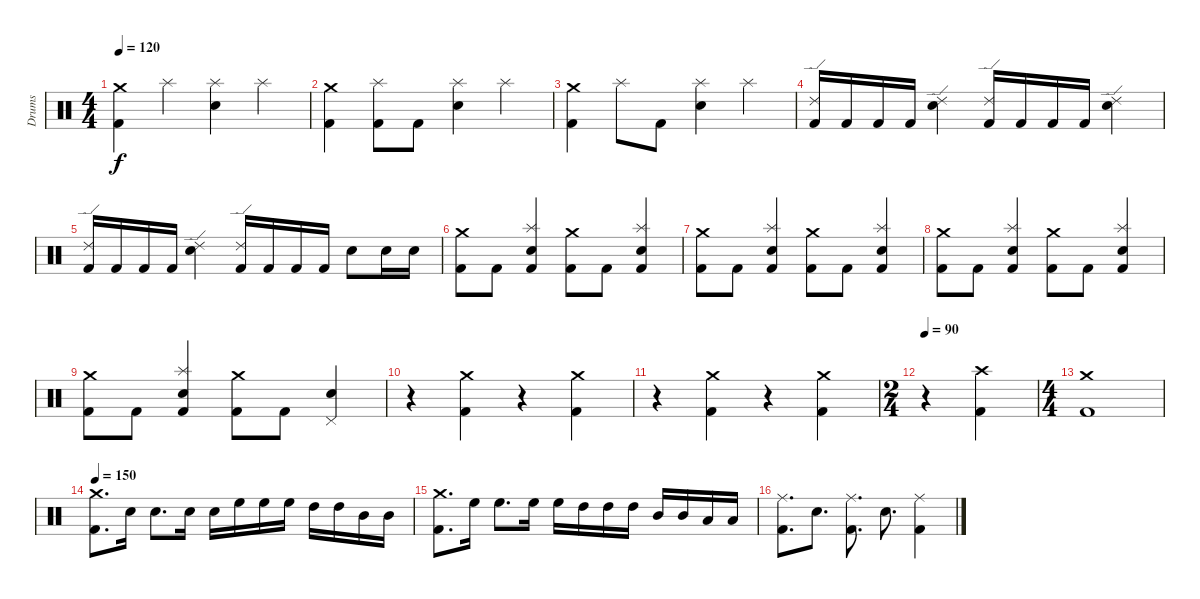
\track ("Drums" "Drums") {instrument percussion}
\staff {score}
\articulation defaults
\ts (4 4)
\tempo 120
\clef neutral
\ks c
("Crash medium (hit)" "Kick (hit) 2").4{dy f} "Splash (hit)".4 ("Splash (hit)" "Snare (hit) 2").4 "Splash (hit)".4 |
("Crash medium (hit)" "Kick (hit) 2").4 ("Splash (hit)" "Kick (hit) 2").8 "Kick (hit) 2".8 ("Splash (hit)" "Snare (hit) 2").4 "Splash (hit)".4 |
("Crash medium (hit)" "Kick (hit) 2").4 "Splash (hit)".8 "Kick (hit) 2".8 ("Splash (hit)" "Snare (hit) 2").4 "Splash (hit)".4 |
("Ride (edge) 2" "Kick (hit) 2").16 "Kick (hit) 2".16 "Kick (hit) 2".16 "Kick (hit) 2".16 ("Ride (edge) 2" "Snare (hit) 2").4 ("Ride (edge) 2" "Kick (hit) 2").16 "Kick (hit) 2".16 "Kick (hit) 2".16 "Kick (hit) 2".16 ("Ride (edge) 2" "Snare (hit) 2").4 |
("Ride (edge) 2" "Kick (hit) 2").16 "Kick (hit) 2".16 "Kick (hit) 2".16 "Kick (hit) 2".16 ("Ride (edge) 2" "Snare (hit) 2").4 ("Ride (edge) 2" "Kick (hit) 2").16 "Kick (hit) 2".16 "Kick (hit) 2".16 "Kick (hit) 2".16 "Snare (hit) 2".8 "Snare (hit) 2".16 "Snare (hit) 2".16 |
("Crash medium (hit)" "Kick (hit) 2").8 "Kick (hit) 2".8 ("Splash (hit)" "Snare (hit) 2" "Kick (hit) 2").4 ("Crash medium (hit)" "Kick (hit) 2").8 "Kick (hit) 2".8 ("Splash (hit)" "Snare (hit) 2" "Kick (hit) 2").4 |
("Crash medium (hit)" "Kick (hit) 2").8 "Kick (hit) 2".8 ("Splash (hit)" "Snare (hit) 2" "Kick (hit) 2").4 ("Crash medium (hit)" "Kick (hit) 2").8 "Kick (hit) 2".8 ("Splash (hit)" "Snare (hit) 2" "Kick (hit) 2").4 |
("Crash medium (hit)" "Kick (hit) 2").8 "Kick (hit) 2".8 ("Splash (hit)" "Snare (hit) 2" "Kick (hit) 2").4 ("Crash medium (hit)" "Kick (hit) 2").8 "Kick (hit) 2".8 ("Splash (hit)" "Snare (hit) 2" "Kick (hit) 2").4 |
("Crash medium (hit)" "Kick (hit) 2").8 "Kick (hit) 2".8 ("Splash (hit)" "Snare (hit) 2" "Kick (hit) 2").4 ("Crash medium (hit)" "Kick (hit) 2").8 "Kick (hit) 2".8 ("Pedal Hi-Hat (hit)" "Snare (hit) 2").4 |
r.4 ("Crash medium (hit)" "Kick (hit) 2").4 r.4 ("Crash medium (hit)" "Kick (hit) 2").4 |
r.4 ("Crash medium (hit)" "Kick (hit) 2").4 r.4 ("Crash medium (hit)" "Kick (hit) 2").4 |
\ts (2 4)
\tempo 90
r.4 ("Crash high (hit)" "Kick (hit) 2").4 |
\ts (4 4)
("Crash medium (hit)" "Kick (hit) 2").1 |
\tempo 150
("Crash medium (hit)" "Kick (hit) 2").8{d} "Snare (hit) 2".16 "Snare (hit) 2".8{d} "Snare (hit) 2".16 "Snare (hit) 2".16 "High Floor Tom (hit)".16 "High Floor Tom (hit)".16 "High Floor Tom (hit)".16 "High Tom (hit)".16 "High Tom (hit)".16 "Mid Tom (hit)".16 "Mid Tom (hit)".16 |
("Crash medium (hit)" "Kick (hit) 2").8{d} "High Floor Tom (hit)".16 "High Floor Tom (hit)".8{d} "High Floor Tom (hit)".16 "High Floor Tom (hit)".16 "High Tom (hit)".16 "High Tom (hit)".16 "High Tom (hit)".16 "Mid Tom (hit)".16 "Mid Tom (hit)".16 "Low Tom (hit)".16 "Low Tom (hit)".16 |
("Ride (middle)" "Kick (hit) 2").8{d} "Snare (hit) 2".8{d} ("Ride (middle)" "Kick (hit) 2").8{d} "Snare (hit) 2".8{d} ("Ride (middle)" "Kick (hit) 2").4
